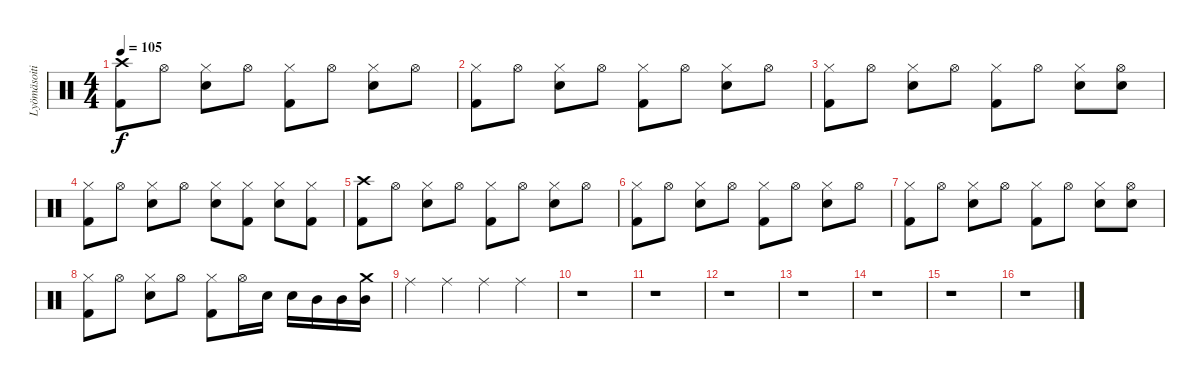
\track ("Lyömäsoitin" "Lyömäsoiti") {instrument percussion}
\staff {score}
\articulation defaults
\ts (4 4)
\tempo 105
\clef neutral
\ks c
("Crash high (hit)" "Kick (hit) 2").8{dy f} "Hi-Hat (open)".8 ("Hi-Hat (closed)" "Snare (hit) 2").8 "Hi-Hat (open)".8 ("Hi-Hat (closed)" "Kick (hit) 2").8 "Hi-Hat (open)".8 ("Hi-Hat (closed)" "Snare (hit) 2").8 "Hi-Hat (open)".8 |
("Hi-Hat (closed)" "Kick (hit) 2").8 "Hi-Hat (open)".8 ("Hi-Hat (closed)" "Snare (hit) 2").8 "Hi-Hat (open)".8 ("Hi-Hat (closed)" "Kick (hit) 2").8 "Hi-Hat (open)".8 ("Hi-Hat (closed)" "Snare (hit) 2").8 "Hi-Hat (open)".8 |
("Hi-Hat (closed)" "Kick (hit) 2").8 "Hi-Hat (open)".8 ("Hi-Hat (closed)" "Snare (hit) 2").8 "Hi-Hat (open)".8 ("Hi-Hat (closed)" "Kick (hit) 2").8 "Hi-Hat (open)".8 ("Hi-Hat (closed)" "Snare (hit) 2").8 ("Hi-Hat (open)" "Snare (hit) 2").8 |
("Hi-Hat (closed)" "Kick (hit) 2").8 "Hi-Hat (open)".8 ("Hi-Hat (closed)" "Snare (hit) 2").8 "Hi-Hat (open)".8 ("Hi-Hat (closed)" "Snare (hit) 2").8 ("Hi-Hat (closed)" "Kick (hit) 2").8 ("Hi-Hat (closed)" "Snare (hit) 2").8 ("Hi-Hat (closed)" "Kick (hit) 2").8 |
("Crash high (hit)" "Kick (hit) 2").8 "Hi-Hat (open)".8 ("Hi-Hat (closed)" "Snare (hit) 2").8 "Hi-Hat (open)".8 ("Hi-Hat (closed)" "Kick (hit) 2").8 "Hi-Hat (open)".8 ("Hi-Hat (closed)" "Snare (hit) 2").8 "Hi-Hat (open)".8 |
("Hi-Hat (closed)" "Kick (hit) 2").8 "Hi-Hat (open)".8 ("Hi-Hat (closed)" "Snare (hit) 2").8 "Hi-Hat (open)".8 ("Hi-Hat (closed)" "Kick (hit) 2").8 "Hi-Hat (open)".8 ("Hi-Hat (closed)" "Snare (hit) 2").8 "Hi-Hat (open)".8 |
("Hi-Hat (closed)" "Kick (hit) 2").8 "Hi-Hat (open)".8 ("Hi-Hat (closed)" "Snare (hit) 2").8 "Hi-Hat (open)".8 ("Hi-Hat (closed)" "Kick (hit) 2").8 "Hi-Hat (open)".8 ("Hi-Hat (closed)" "Snare (hit) 2").8 ("Hi-Hat (open)" "Snare (hit) 2").8 |
("Hi-Hat (closed)" "Kick (hit) 2").8 "Hi-Hat (open)".8 ("Hi-Hat (closed)" "Snare (hit) 2").8 "Hi-Hat (open)".8 ("Hi-Hat (closed)" "Kick (hit) 2").8 "Hi-Hat (open)".16 "Snare (hit) 2".16 "Snare (hit) 2".16 "Mid Tom (hit)".16 "Mid Tom (hit)".16 ("Crash medium (hit)" "Mid Tom (hit)").16 |
"Ride (middle)".4 "Ride (middle)".4 "Ride (middle)".4 "Ride (middle)".4 |
r.1 |
r.1 |
r.1 |
r.1 |
r.1 |
r.1 |
r.1
